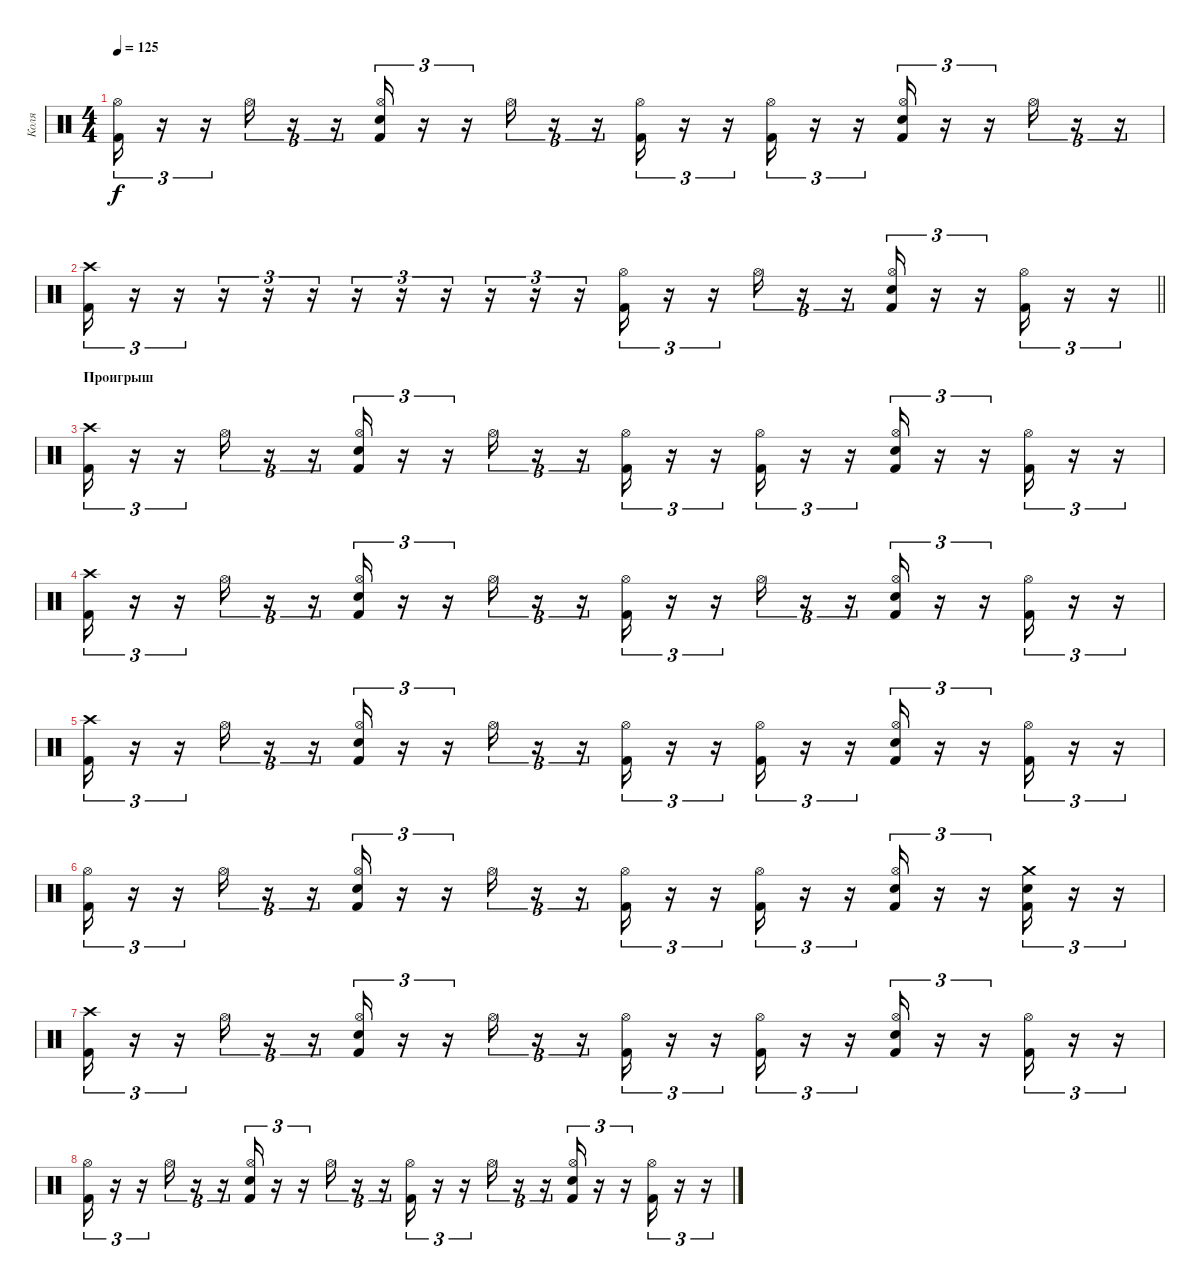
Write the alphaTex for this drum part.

\track ("Коля" "Коля") {instrument percussion}
\staff {score}
\articulation defaults
\ts (4 4)
\tempo 125
\clef neutral
\ks c
("Kick (hit) 2" "Hi-Hat (open)").16{tu (3 2) dy f} r.16{tu (3 2)} r.16{tu (3 2)} "Hi-Hat (open)".16{tu (3 2)} r.16{tu (3 2)} r.16{tu (3 2)} ("Kick (hit) 2" "Snare (hit) 2" "Hi-Hat (open)").16{tu (3 2)} r.16{tu (3 2)} r.16{tu (3 2)} "Hi-Hat (open)".16{tu (3 2)} r.16{tu (3 2)} r.16{tu (3 2)} ("Kick (hit) 2" "Hi-Hat (open)").16{tu (3 2)} r.16{tu (3 2)} r.16{tu (3 2)} ("Kick (hit) 2" "Hi-Hat (open)").16{tu (3 2)} r.16{tu (3 2)} r.16{tu (3 2)} ("Kick (hit) 2" "Snare (hit) 2" "Hi-Hat (open)").16{tu (3 2)} r.16{tu (3 2)} r.16{tu (3 2)} "Hi-Hat (open)".16{tu (3 2)} r.16{tu (3 2)} r.16{tu (3 2)} |
\barLineRight lightlight
("Kick (hit) 2" "Crash high (hit)").16{tu (3 2)} r.16{tu (3 2)} r.16{tu (3 2)} r.16{tu (3 2)} r.16{tu (3 2)} r.16{tu (3 2)} r.16{tu (3 2)} r.16{tu (3 2)} r.16{tu (3 2)} r.16{tu (3 2)} r.16{tu (3 2)} r.16{tu (3 2)} ("Kick (hit) 2" "Hi-Hat (open)").16{tu (3 2)} r.16{tu (3 2)} r.16{tu (3 2)} "Hi-Hat (open)".16{tu (3 2)} r.16{tu (3 2)} r.16{tu (3 2)} ("Kick (hit) 2" "Snare (hit) 2" "Hi-Hat (open)").16{tu (3 2)} r.16{tu (3 2)} r.16{tu (3 2)} ("Kick (hit) 2" "Hi-Hat (open)").16{tu (3 2)} r.16{tu (3 2)} r.16{tu (3 2)} |
\section ("" "Проигрыш")
("Kick (hit) 2" "Crash high (hit)").16{tu (3 2)} r.16{tu (3 2)} r.16{tu (3 2)} "Hi-Hat (open)".16{tu (3 2)} r.16{tu (3 2)} r.16{tu (3 2)} ("Kick (hit) 2" "Snare (hit) 2" "Hi-Hat (open)").16{tu (3 2)} r.16{tu (3 2)} r.16{tu (3 2)} "Hi-Hat (open)".16{tu (3 2)} r.16{tu (3 2)} r.16{tu (3 2)} ("Kick (hit) 2" "Hi-Hat (open)").16{tu (3 2)} r.16{tu (3 2)} r.16{tu (3 2)} ("Kick (hit) 2" "Hi-Hat (open)").16{tu (3 2)} r.16{tu (3 2)} r.16{tu (3 2)} ("Kick (hit) 2" "Snare (hit) 2" "Hi-Hat (open)").16{tu (3 2)} r.16{tu (3 2)} r.16{tu (3 2)} ("Kick (hit) 2" "Hi-Hat (open)").16{tu (3 2)} r.16{tu (3 2)} r.16{tu (3 2)} |
("Kick (hit) 2" "Crash high (hit)").16{tu (3 2)} r.16{tu (3 2)} r.16{tu (3 2)} "Hi-Hat (open)".16{tu (3 2)} r.16{tu (3 2)} r.16{tu (3 2)} ("Kick (hit) 2" "Snare (hit) 2" "Hi-Hat (open)").16{tu (3 2)} r.16{tu (3 2)} r.16{tu (3 2)} "Hi-Hat (open)".16{tu (3 2)} r.16{tu (3 2)} r.16{tu (3 2)} ("Kick (hit) 2" "Hi-Hat (open)").16{tu (3 2)} r.16{tu (3 2)} r.16{tu (3 2)} "Hi-Hat (open)".16{tu (3 2)} r.16{tu (3 2)} r.16{tu (3 2)} ("Kick (hit) 2" "Snare (hit) 2" "Hi-Hat (open)").16{tu (3 2)} r.16{tu (3 2)} r.16{tu (3 2)} ("Kick (hit) 2" "Hi-Hat (open)").16{tu (3 2)} r.16{tu (3 2)} r.16{tu (3 2)} |
("Kick (hit) 2" "Crash high (hit)").16{tu (3 2)} r.16{tu (3 2)} r.16{tu (3 2)} "Hi-Hat (open)".16{tu (3 2)} r.16{tu (3 2)} r.16{tu (3 2)} ("Kick (hit) 2" "Snare (hit) 2" "Hi-Hat (open)").16{tu (3 2)} r.16{tu (3 2)} r.16{tu (3 2)} "Hi-Hat (open)".16{tu (3 2)} r.16{tu (3 2)} r.16{tu (3 2)} ("Kick (hit) 2" "Hi-Hat (open)").16{tu (3 2)} r.16{tu (3 2)} r.16{tu (3 2)} ("Kick (hit) 2" "Hi-Hat (open)").16{tu (3 2)} r.16{tu (3 2)} r.16{tu (3 2)} ("Kick (hit) 2" "Snare (hit) 2" "Hi-Hat (open)").16{tu (3 2)} r.16{tu (3 2)} r.16{tu (3 2)} ("Kick (hit) 2" "Hi-Hat (open)").16{tu (3 2)} r.16{tu (3 2)} r.16{tu (3 2)} |
("Kick (hit) 2" "Hi-Hat (open)").16{tu (3 2)} r.16{tu (3 2)} r.16{tu (3 2)} "Hi-Hat (open)".16{tu (3 2)} r.16{tu (3 2)} r.16{tu (3 2)} ("Kick (hit) 2" "Snare (hit) 2" "Hi-Hat (open)").16{tu (3 2)} r.16{tu (3 2)} r.16{tu (3 2)} "Hi-Hat (open)".16{tu (3 2)} r.16{tu (3 2)} r.16{tu (3 2)} ("Kick (hit) 2" "Hi-Hat (open)").16{tu (3 2)} r.16{tu (3 2)} r.16{tu (3 2)} ("Kick (hit) 2" "Hi-Hat (open)").16{tu (3 2)} r.16{tu (3 2)} r.16{tu (3 2)} ("Kick (hit) 2" "Snare (hit) 2" "Hi-Hat (open)").16{tu (3 2)} r.16{tu (3 2)} r.16{tu (3 2)} ("Kick (hit) 2" "Snare (hit) 2" "Crash medium (hit)").16{tu (3 2)} r.16{tu (3 2)} r.16{tu (3 2)} |
("Kick (hit) 2" "Crash high (hit)").16{tu (3 2)} r.16{tu (3 2)} r.16{tu (3 2)} "Hi-Hat (open)".16{tu (3 2)} r.16{tu (3 2)} r.16{tu (3 2)} ("Kick (hit) 2" "Snare (hit) 2" "Hi-Hat (open)").16{tu (3 2)} r.16{tu (3 2)} r.16{tu (3 2)} "Hi-Hat (open)".16{tu (3 2)} r.16{tu (3 2)} r.16{tu (3 2)} ("Kick (hit) 2" "Hi-Hat (open)").16{tu (3 2)} r.16{tu (3 2)} r.16{tu (3 2)} ("Kick (hit) 2" "Hi-Hat (open)").16{tu (3 2)} r.16{tu (3 2)} r.16{tu (3 2)} ("Kick (hit) 2" "Snare (hit) 2" "Hi-Hat (open)").16{tu (3 2)} r.16{tu (3 2)} r.16{tu (3 2)} ("Kick (hit) 2" "Hi-Hat (open)").16{tu (3 2)} r.16{tu (3 2)} r.16{tu (3 2)} |
("Kick (hit) 2" "Hi-Hat (open)").16{tu (3 2)} r.16{tu (3 2)} r.16{tu (3 2)} "Hi-Hat (open)".16{tu (3 2)} r.16{tu (3 2)} r.16{tu (3 2)} ("Kick (hit) 2" "Snare (hit) 2" "Hi-Hat (open)").16{tu (3 2)} r.16{tu (3 2)} r.16{tu (3 2)} "Hi-Hat (open)".16{tu (3 2)} r.16{tu (3 2)} r.16{tu (3 2)} ("Kick (hit) 2" "Hi-Hat (open)").16{tu (3 2)} r.16{tu (3 2)} r.16{tu (3 2)} "Hi-Hat (open)".16{tu (3 2)} r.16{tu (3 2)} r.16{tu (3 2)} ("Kick (hit) 2" "Snare (hit) 2" "Hi-Hat (open)").16{tu (3 2)} r.16{tu (3 2)} r.16{tu (3 2)} ("Kick (hit) 2" "Hi-Hat (open)").16{tu (3 2)} r.16{tu (3 2)} r.16{tu (3 2)}
